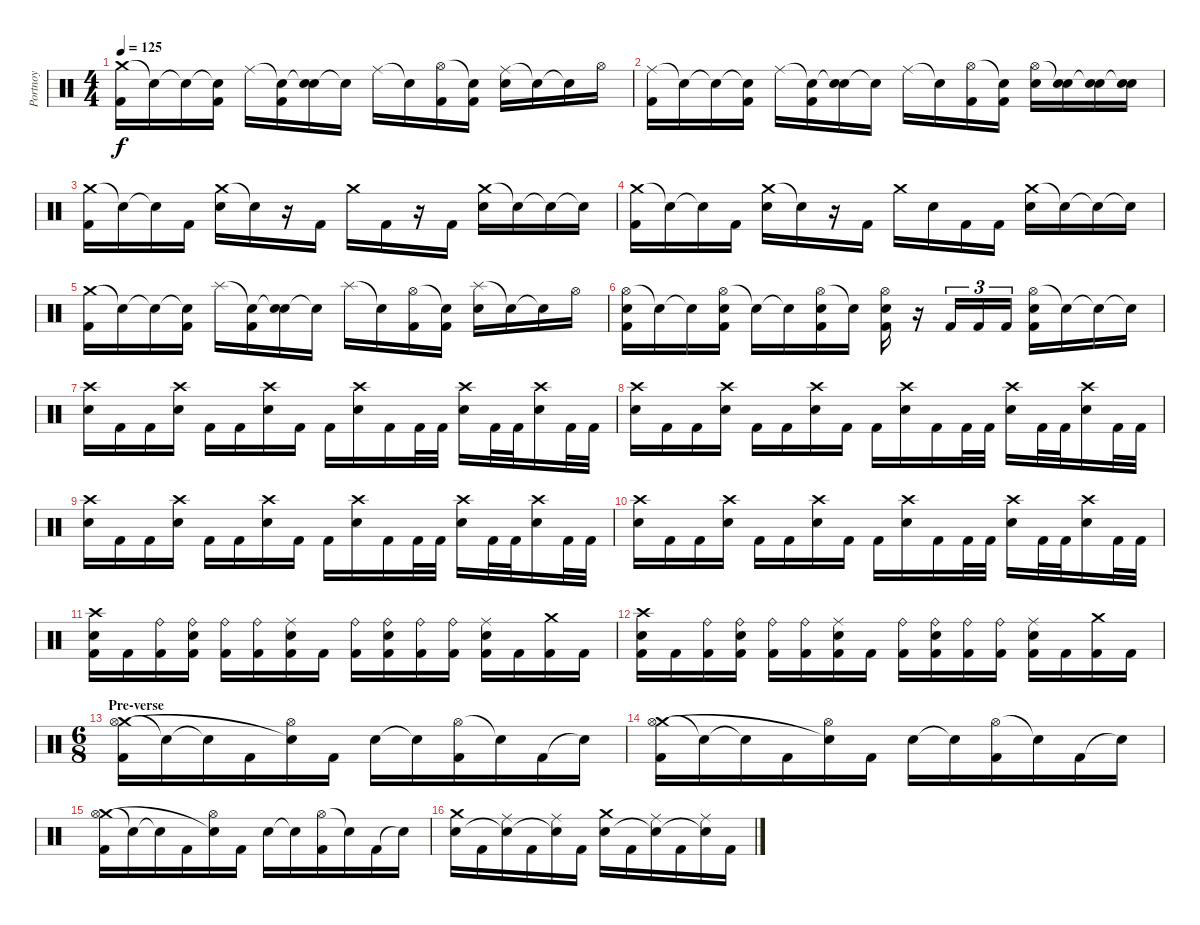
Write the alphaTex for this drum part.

\track ("Portnoy" "Portnoy") {instrument percussion}
\staff {score}
\articulation defaults
\ts (4 4)
\tempo 125
\clef neutral
\ks c
("Crash medium (hit)" "Kick (hit) 2").16{dy f} "Snare (hit)"{t}.16 "Snare (hit)"{t}.16 ("Snare (hit)"{t} "Kick (hit) 2").16 "Ride (middle)".16 ("Snare (hit)"{t} "Kick (hit) 2").16 ("Snare (hit)"{t} "Snare (hit) 2").16 "Snare (hit)"{t}.16 "Ride (middle)".16 "Snare (hit)"{t}.16 ("Hi-Hat (open)" "Kick (hit) 2").16 ("Snare (hit)"{t} "Kick (hit) 2").16 ("Ride (middle)" "Snare (hit) 2").16 "Snare (hit)"{t}.16 "Snare (hit)"{t}.16 "Hi-Hat (open)".16 |
("Ride (middle)" "Kick (hit) 2").16 "Snare (hit)"{t}.16 "Snare (hit)"{t}.16 ("Snare (hit)"{t} "Kick (hit) 2").16 "Ride (middle)".16 ("Snare (hit)"{t} "Kick (hit) 2").16 ("Snare (hit)"{t} "Snare (hit) 2").16 "Snare (hit)"{t}.16 "Ride (middle)".16 "Snare (hit)"{t}.16 ("Hi-Hat (open)" "Kick (hit) 2").16 ("Snare (hit)"{t} "Kick (hit) 2").16 ("Hi-Hat (open)" "Snare (hit) 2").16 ("Snare (hit)"{t} "Snare (hit) 2").16 ("Snare (hit)"{t} "Snare (hit) 2").16 ("Snare (hit)"{t} "Snare (hit) 2").16 |
("Crash medium (hit)" "Kick (hit) 2").16 "Snare (hit)"{t}.16 "Snare (hit)"{t}.16 "Kick (hit) 2".16 ("Crash medium (hit)" "Snare (hit) 2").16 "Snare (hit)"{t}.16 r.16 "Kick (hit) 2".16 "Crash medium (hit)".16 "Kick (hit) 2".16 r.16 "Kick (hit) 2".16 ("Crash medium (hit)" "Snare (hit) 2").16 "Snare (hit)"{t}.16 "Snare (hit)"{t}.16 "Snare (hit)"{t}.16 |
("Crash medium (hit)" "Kick (hit) 2").16 "Snare (hit)"{t}.16 "Snare (hit)"{t}.16 "Kick (hit) 2".16 ("Crash medium (hit)" "Snare (hit) 2").16 "Snare (hit)"{t}.16 r.16 "Kick (hit) 2".16 "Crash medium (hit)".16 "Snare (hit) 2".16 "Kick (hit) 2".16 "Kick (hit) 2".16 ("Crash medium (hit)" "Snare (hit) 2").16 "Snare (hit)"{t}.16 "Snare (hit)"{t}.16 "Snare (hit)"{t}.16 |
("Crash medium (hit)" "Kick (hit) 2").16 "Snare (hit)"{t}.16 "Snare (hit)"{t}.16 ("Snare (hit)"{t} "Kick (hit) 2").16 "Splash (hit)".16 ("Snare (hit)"{t} "Kick (hit) 2").16 ("Snare (hit)"{t} "Snare (hit) 2").16 "Snare (hit)"{t}.16 "Splash (hit)".16 "Snare (hit)"{t}.16 ("Hi-Hat (open)" "Kick (hit) 2").16 ("Snare (hit)"{t} "Kick (hit) 2").16 ("Splash (hit)" "Snare (hit) 2").16 "Snare (hit)"{t}.16 "Snare (hit)"{t}.16 "Hi-Hat (open)".16 |
("Hi-Hat (open)" "Snare (hit) 2" "Kick (hit) 2").16 "Snare (hit)"{t}.16 "Snare (hit)"{t}.16 ("Hi-Hat (open)" "Snare (hit) 2" "Kick (hit) 2").16 "Snare (hit)"{t}.16 "Snare (hit)"{t}.16 ("Hi-Hat (open)" "Snare (hit) 2" "Kick (hit) 2").16 "Snare (hit)"{t}.16 ("Hi-Hat (open)" "Snare (hit) 2" "Kick (hit) 2").16 r.16 "Kick (hit) 2".16{tu (3 2)} "Kick (hit) 2".16{tu (3 2)} "Kick (hit) 2".16{tu (3 2)} ("Hi-Hat (open)" "Snare (hit) 2" "Kick (hit) 2").16 "Snare (hit)"{t}.16 "Snare (hit)"{t}.16 "Snare (hit)"{t}.16 |
("Crash high (hit)" "Snare (hit) 2").16 "Kick (hit) 2".16 "Kick (hit) 2".16 ("Crash high (hit)" "Snare (hit) 2").16 "Kick (hit) 2".16 "Kick (hit) 2".16 ("Crash high (hit)" "Snare (hit) 2").16 "Kick (hit) 2".16 "Kick (hit) 2".16 ("Crash high (hit)" "Snare (hit) 2").16 "Kick (hit) 2".16 "Kick (hit) 2".32 "Kick (hit) 2".32 ("Crash high (hit)" "Snare (hit) 2").16 "Kick (hit) 2".32 "Kick (hit) 2".32 ("Crash high (hit)" "Snare (hit) 2").16 "Kick (hit) 2".32 "Kick (hit) 2".32 |
("Crash high (hit)" "Snare (hit) 2").16 "Kick (hit) 2".16 "Kick (hit) 2".16 ("Crash high (hit)" "Snare (hit) 2").16 "Kick (hit) 2".16 "Kick (hit) 2".16 ("Crash high (hit)" "Snare (hit) 2").16 "Kick (hit) 2".16 "Kick (hit) 2".16 ("Crash high (hit)" "Snare (hit) 2").16 "Kick (hit) 2".16 "Kick (hit) 2".32 "Kick (hit) 2".32 ("Crash high (hit)" "Snare (hit) 2").16 "Kick (hit) 2".32 "Kick (hit) 2".32 ("Crash high (hit)" "Snare (hit) 2").16 "Kick (hit) 2".32 "Kick (hit) 2".32 |
("Crash high (hit)" "Snare (hit) 2").16 "Kick (hit) 2".16 "Kick (hit) 2".16 ("Crash high (hit)" "Snare (hit) 2").16 "Kick (hit) 2".16 "Kick (hit) 2".16 ("Crash high (hit)" "Snare (hit) 2").16 "Kick (hit) 2".16 "Kick (hit) 2".16 ("Crash high (hit)" "Snare (hit) 2").16 "Kick (hit) 2".16 "Kick (hit) 2".32 "Kick (hit) 2".32 ("Crash high (hit)" "Snare (hit) 2").16 "Kick (hit) 2".32 "Kick (hit) 2".32 ("Crash high (hit)" "Snare (hit) 2").16 "Kick (hit) 2".32 "Kick (hit) 2".32 |
("Crash high (hit)" "Snare (hit) 2").16 "Kick (hit) 2".16 "Kick (hit) 2".16 ("Crash high (hit)" "Snare (hit) 2").16 "Kick (hit) 2".16 "Kick (hit) 2".16 ("Crash high (hit)" "Snare (hit) 2").16 "Kick (hit) 2".16 "Kick (hit) 2".16 ("Crash high (hit)" "Snare (hit) 2").16 "Kick (hit) 2".16 "Kick (hit) 2".32 "Kick (hit) 2".32 ("Crash high (hit)" "Snare (hit) 2").16 "Kick (hit) 2".32 "Kick (hit) 2".32 ("Crash high (hit)" "Snare (hit) 2").16 "Kick (hit) 2".32 "Kick (hit) 2".32 |
("Crash high (hit)" "Snare (hit) 2" "Kick (hit) 2").16 "Kick (hit) 2".16 ("Ride (bell)" "Kick (hit) 2").16 ("Ride (bell)" "Snare (hit) 2" "Kick (hit) 2").16 ("Ride (bell)" "Kick (hit) 2").16 ("Ride (bell)" "Kick (hit) 2").16 ("Ride (middle)" "Snare (hit) 2" "Kick (hit) 2").16 "Kick (hit) 2".16 ("Ride (bell)" "Kick (hit) 2").16 ("Ride (bell)" "Snare (hit) 2" "Kick (hit) 2").16 ("Ride (bell)" "Kick (hit) 2").16 ("Ride (bell)" "Kick (hit) 2").16 ("Ride (middle)" "Snare (hit) 2" "Kick (hit) 2").16 "Kick (hit) 2".16 ("Crash medium (hit)" "Kick (hit) 2").16 "Kick (hit) 2".16 |
("Crash high (hit)" "Snare (hit) 2" "Kick (hit) 2").16 "Kick (hit) 2".16 ("Ride (bell)" "Kick (hit) 2").16 ("Ride (bell)" "Snare (hit) 2" "Kick (hit) 2").16 ("Ride (bell)" "Kick (hit) 2").16 ("Ride (bell)" "Kick (hit) 2").16 ("Ride (middle)" "Snare (hit) 2" "Kick (hit) 2").16 "Kick (hit) 2".16 ("Ride (bell)" "Kick (hit) 2").16 ("Ride (bell)" "Snare (hit) 2" "Kick (hit) 2").16 ("Ride (bell)" "Kick (hit) 2").16 ("Ride (bell)" "Kick (hit) 2").16 ("Ride (middle)" "Snare (hit) 2" "Kick (hit) 2").16 "Kick (hit) 2".16 ("Crash medium (hit)" "Kick (hit) 2").16 "Kick (hit) 2".16 |
\ts (6 8)
\section ("" "Pre-verse")
("Crash medium (hit)" "Hi-Hat (open)" "Kick (hit) 2").16 "Snare (hit)"{t}.16 "Snare (hit)"{t}.16 "Kick (hit) 2".16 ("Hi-Hat (open)" "Snare (hit)"{t}).16 "Kick (hit) 2".16 "Snare (hit) 2".16 "Snare (hit)"{t}.16 ("Hi-Hat (open)" "Kick (hit) 2").16 "Snare (hit)"{t}.16 "Kick (hit) 2".16 "Snare (hit)"{t}.16 |
("Crash medium (hit)" "Hi-Hat (open)" "Kick (hit) 2").16 "Snare (hit)"{t}.16 "Snare (hit)"{t}.16 "Kick (hit) 2".16 ("Hi-Hat (open)" "Snare (hit)"{t}).16 "Kick (hit) 2".16 "Snare (hit) 2".16 "Snare (hit)"{t}.16 ("Hi-Hat (open)" "Kick (hit) 2").16 "Snare (hit)"{t}.16 "Kick (hit) 2".16 "Snare (hit)"{t}.16 |
("Crash medium (hit)" "Hi-Hat (open)" "Kick (hit) 2").16 "Snare (hit)"{t}.16 "Snare (hit)"{t}.16 "Kick (hit) 2".16 ("Hi-Hat (open)" "Snare (hit)"{t}).16 "Kick (hit) 2".16 "Snare (hit) 2".16 "Snare (hit)"{t}.16 ("Hi-Hat (open)" "Kick (hit) 2").16 "Snare (hit)"{t}.16 "Kick (hit) 2".16 "Snare (hit)"{t}.16 |
("Crash medium (hit)" "Snare (hit) 2").16 "Kick (hit) 2".16 ("Ride (middle)" "Snare (hit)"{t}).16 "Kick (hit) 2".16 ("Ride (middle)" "Snare (hit)"{t}).16 "Kick (hit) 2".16 ("Crash medium (hit)" "Snare (hit) 2").16 "Kick (hit) 2".16 ("Ride (middle)" "Snare (hit)"{t}).16 "Kick (hit) 2".16 ("Ride (middle)" "Snare (hit)"{t}).16 "Kick (hit) 2".16
